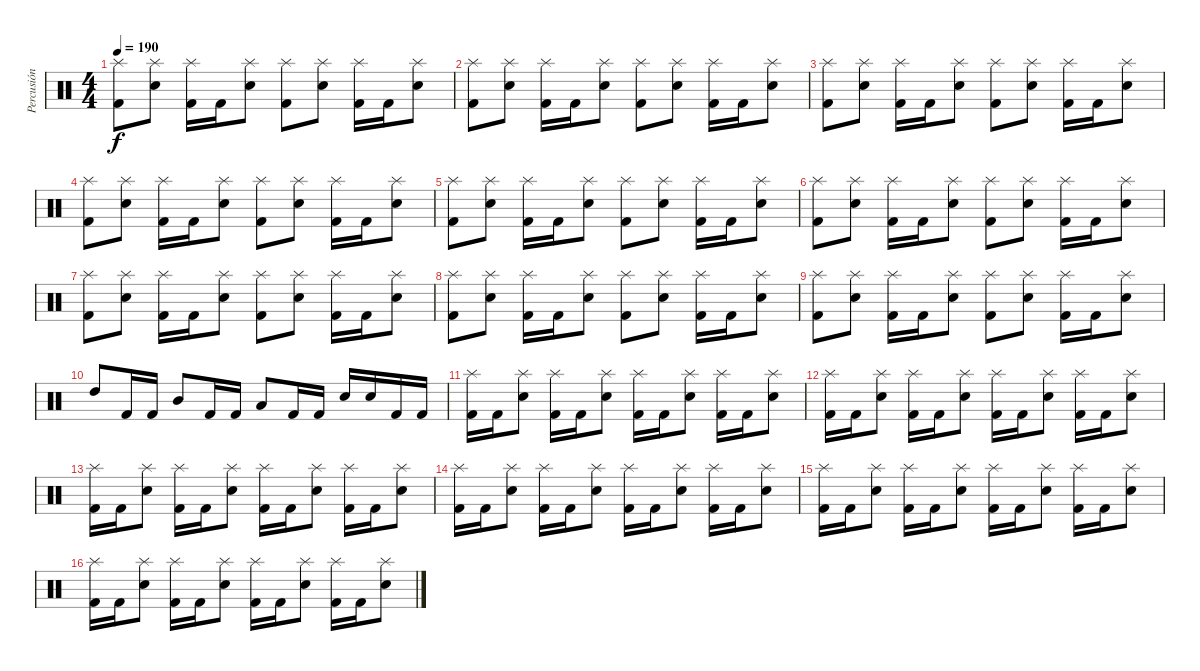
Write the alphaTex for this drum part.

\track ("Percusión" "Percusión") {instrument percussion}
\staff {score}
\articulation defaults
\ts (4 4)
\tempo 190
\clef neutral
\ks c
("Splash (hit)" "Kick (hit) 2").8{dy f} ("Splash (hit)" "Snare (hit) 2").8 ("Splash (hit)" "Kick (hit) 2").16 "Kick (hit) 2".16 ("Splash (hit)" "Snare (hit) 2").8 ("Splash (hit)" "Kick (hit) 2").8 ("Splash (hit)" "Snare (hit) 2").8 ("Splash (hit)" "Kick (hit) 2").16 "Kick (hit) 2".16 ("Splash (hit)" "Snare (hit) 2").8 |
("Splash (hit)" "Kick (hit) 2").8 ("Splash (hit)" "Snare (hit) 2").8 ("Splash (hit)" "Kick (hit) 2").16 "Kick (hit) 2".16 ("Splash (hit)" "Snare (hit) 2").8 ("Splash (hit)" "Kick (hit) 2").8 ("Splash (hit)" "Snare (hit) 2").8 ("Splash (hit)" "Kick (hit) 2").16 "Kick (hit) 2".16 ("Splash (hit)" "Snare (hit) 2").8 |
("Splash (hit)" "Kick (hit) 2").8 ("Splash (hit)" "Snare (hit) 2").8 ("Splash (hit)" "Kick (hit) 2").16 "Kick (hit) 2".16 ("Splash (hit)" "Snare (hit) 2").8 ("Splash (hit)" "Kick (hit) 2").8 ("Splash (hit)" "Snare (hit) 2").8 ("Splash (hit)" "Kick (hit) 2").16 "Kick (hit) 2".16 ("Splash (hit)" "Snare (hit) 2").8 |
("Splash (hit)" "Kick (hit) 2").8 ("Splash (hit)" "Snare (hit) 2").8 ("Splash (hit)" "Kick (hit) 2").16 "Kick (hit) 2".16 ("Splash (hit)" "Snare (hit) 2").8 ("Splash (hit)" "Kick (hit) 2").8 ("Splash (hit)" "Snare (hit) 2").8 ("Splash (hit)" "Kick (hit) 2").16 "Kick (hit) 2".16 ("Splash (hit)" "Snare (hit) 2").8 |
("Splash (hit)" "Kick (hit) 2").8 ("Splash (hit)" "Snare (hit) 2").8 ("Splash (hit)" "Kick (hit) 2").16 "Kick (hit) 2".16 ("Splash (hit)" "Snare (hit) 2").8 ("Splash (hit)" "Kick (hit) 2").8 ("Splash (hit)" "Snare (hit) 2").8 ("Splash (hit)" "Kick (hit) 2").16 "Kick (hit) 2".16 ("Splash (hit)" "Snare (hit) 2").8 |
("Splash (hit)" "Kick (hit) 2").8 ("Splash (hit)" "Snare (hit) 2").8 ("Splash (hit)" "Kick (hit) 2").16 "Kick (hit) 2".16 ("Splash (hit)" "Snare (hit) 2").8 ("Splash (hit)" "Kick (hit) 2").8 ("Splash (hit)" "Snare (hit) 2").8 ("Splash (hit)" "Kick (hit) 2").16 "Kick (hit) 2".16 ("Splash (hit)" "Snare (hit) 2").8 |
("Splash (hit)" "Kick (hit) 2").8 ("Splash (hit)" "Snare (hit) 2").8 ("Splash (hit)" "Kick (hit) 2").16 "Kick (hit) 2".16 ("Splash (hit)" "Snare (hit) 2").8 ("Splash (hit)" "Kick (hit) 2").8 ("Splash (hit)" "Snare (hit) 2").8 ("Splash (hit)" "Kick (hit) 2").16 "Kick (hit) 2".16 ("Splash (hit)" "Snare (hit) 2").8 |
("Splash (hit)" "Kick (hit) 2").8 ("Splash (hit)" "Snare (hit) 2").8 ("Splash (hit)" "Kick (hit) 2").16 "Kick (hit) 2".16 ("Splash (hit)" "Snare (hit) 2").8 ("Splash (hit)" "Kick (hit) 2").8 ("Splash (hit)" "Snare (hit) 2").8 ("Splash (hit)" "Kick (hit) 2").16 "Kick (hit) 2".16 ("Splash (hit)" "Snare (hit) 2").8 |
("Splash (hit)" "Kick (hit) 2").8 ("Splash (hit)" "Snare (hit) 2").8 ("Splash (hit)" "Kick (hit) 2").16 "Kick (hit) 2".16 ("Splash (hit)" "Snare (hit) 2").8 ("Splash (hit)" "Kick (hit) 2").8 ("Splash (hit)" "Snare (hit) 2").8 ("Splash (hit)" "Kick (hit) 2").16 "Kick (hit) 2".16 ("Splash (hit)" "Snare (hit) 2").8 |
"High Tom (hit)".8 "Kick (hit) 2".16 "Kick (hit) 2".16 "Mid Tom (hit)".8 "Kick (hit) 2".16 "Kick (hit) 2".16 "Low Tom (hit)".8 "Kick (hit) 2".16 "Kick (hit) 2".16 "Snare (hit) 2".16 "Snare (hit) 2".16 "Kick (hit) 2".16 "Kick (hit) 2".16 |
("Splash (hit)" "Kick (hit) 2").16 "Kick (hit) 2".16 ("Splash (hit)" "Snare (hit) 2").8 ("Splash (hit)" "Kick (hit) 2").16 "Kick (hit) 2".16 ("Splash (hit)" "Snare (hit) 2").8 ("Splash (hit)" "Kick (hit) 2").16 "Kick (hit) 2".16 ("Splash (hit)" "Snare (hit) 2").8 ("Splash (hit)" "Kick (hit) 2").16 "Kick (hit) 2".16 ("Splash (hit)" "Snare (hit) 2").8 |
("Splash (hit)" "Kick (hit) 2").16 "Kick (hit) 2".16 ("Splash (hit)" "Snare (hit) 2").8 ("Splash (hit)" "Kick (hit) 2").16 "Kick (hit) 2".16 ("Splash (hit)" "Snare (hit) 2").8 ("Splash (hit)" "Kick (hit) 2").16 "Kick (hit) 2".16 ("Splash (hit)" "Snare (hit) 2").8 ("Splash (hit)" "Kick (hit) 2").16 "Kick (hit) 2".16 ("Splash (hit)" "Snare (hit) 2").8 |
("Splash (hit)" "Kick (hit) 2").16 "Kick (hit) 2".16 ("Splash (hit)" "Snare (hit) 2").8 ("Splash (hit)" "Kick (hit) 2").16 "Kick (hit) 2".16 ("Splash (hit)" "Snare (hit) 2").8 ("Splash (hit)" "Kick (hit) 2").16 "Kick (hit) 2".16 ("Splash (hit)" "Snare (hit) 2").8 ("Splash (hit)" "Kick (hit) 2").16 "Kick (hit) 2".16 ("Splash (hit)" "Snare (hit) 2").8 |
("Splash (hit)" "Kick (hit) 2").16 "Kick (hit) 2".16 ("Splash (hit)" "Snare (hit) 2").8 ("Splash (hit)" "Kick (hit) 2").16 "Kick (hit) 2".16 ("Splash (hit)" "Snare (hit) 2").8 ("Splash (hit)" "Kick (hit) 2").16 "Kick (hit) 2".16 ("Splash (hit)" "Snare (hit) 2").8 ("Splash (hit)" "Kick (hit) 2").16 "Kick (hit) 2".16 ("Splash (hit)" "Snare (hit) 2").8 |
("Splash (hit)" "Kick (hit) 2").16 "Kick (hit) 2".16 ("Splash (hit)" "Snare (hit) 2").8 ("Splash (hit)" "Kick (hit) 2").16 "Kick (hit) 2".16 ("Splash (hit)" "Snare (hit) 2").8 ("Splash (hit)" "Kick (hit) 2").16 "Kick (hit) 2".16 ("Splash (hit)" "Snare (hit) 2").8 ("Splash (hit)" "Kick (hit) 2").16 "Kick (hit) 2".16 ("Splash (hit)" "Snare (hit) 2").8 |
("Splash (hit)" "Kick (hit) 2").16 "Kick (hit) 2".16 ("Splash (hit)" "Snare (hit) 2").8 ("Splash (hit)" "Kick (hit) 2").16 "Kick (hit) 2".16 ("Splash (hit)" "Snare (hit) 2").8 ("Splash (hit)" "Kick (hit) 2").16 "Kick (hit) 2".16 ("Splash (hit)" "Snare (hit) 2").8 ("Splash (hit)" "Kick (hit) 2").16 "Kick (hit) 2".16 ("Splash (hit)" "Snare (hit) 2").8
